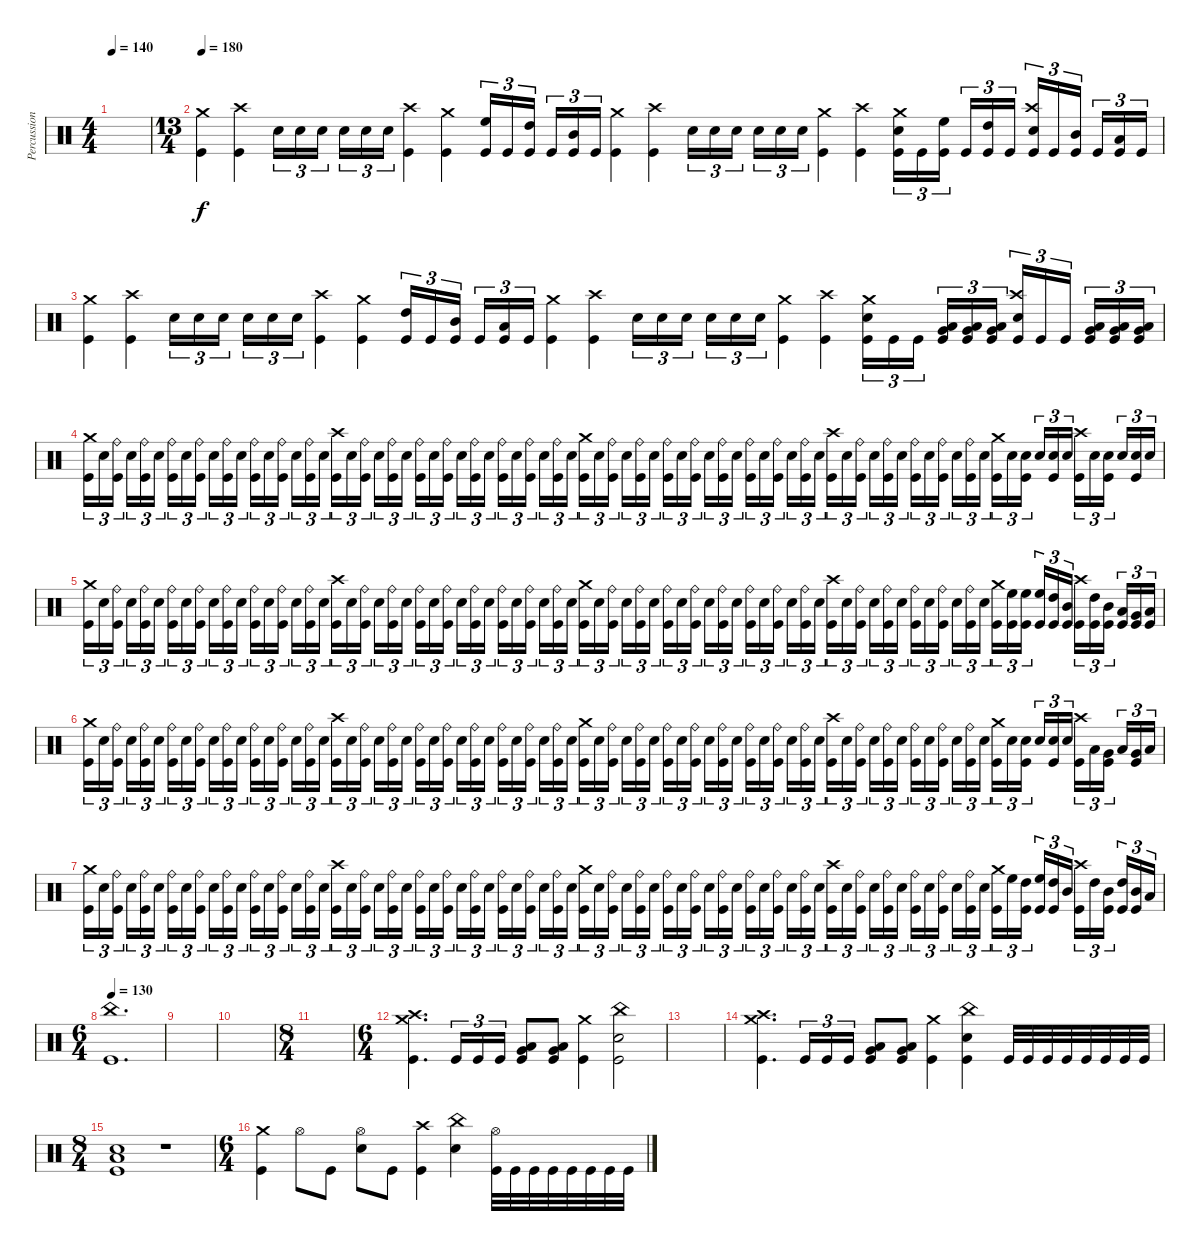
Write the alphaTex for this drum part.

\track ("Percussion" "Percussion") {instrument percussion}
\staff {score}
\articulation defaults
\ts (4 4)
\tempo 140
\tempo 180
\tempo 140
\clef neutral
\ks c
|
\ts (13 4)
\tempo 180
("Crash medium (hit)" "Kick (hit)").4 ("Crash high (hit)" "Kick (hit)").4 "Snare (hit) 2".16{tu (3 2)} "Snare (hit) 2".16{tu (3 2)} "Snare (hit) 2".16{tu (3 2) beam splitsecondary} "Snare (hit) 2".16{tu (3 2)} "Snare (hit) 2".16{tu (3 2)} "Snare (hit) 2".16{tu (3 2)} ("Crash high (hit)" "Kick (hit)").4 ("Crash medium (hit)" "Kick (hit)").4 ("High Floor Tom (hit)" "Kick (hit)").16{tu (3 2)} "Kick (hit)".16{tu (3 2)} ("High Tom (hit)" "Kick (hit)").16{tu (3 2) beam splitsecondary} "Kick (hit)".16{tu (3 2)} ("Mid Tom (hit)" "Kick (hit)").16{tu (3 2)} "Kick (hit)".16{tu (3 2)} ("Crash medium (hit)" "Kick (hit)").4 ("Crash high (hit)" "Kick (hit)").4 "Snare (hit) 2".16{tu (3 2)} "Snare (hit) 2".16{tu (3 2)} "Snare (hit) 2".16{tu (3 2) beam splitsecondary} "Snare (hit) 2".16{tu (3 2)} "Snare (hit) 2".16{tu (3 2)} "Snare (hit) 2".16{tu (3 2)} ("Crash medium (hit)" "Kick (hit)").4 ("Crash high (hit)" "Kick (hit)").4 ("Snare (hit) 2" "Crash medium (hit)" "Kick (hit)").16{tu (3 2)} "Kick (hit)".16{tu (3 2)} ("High Floor Tom (hit)" "Kick (hit)").16{tu (3 2) beam splitsecondary} "Kick (hit)".16{tu (3 2)} ("High Tom (hit)" "Kick (hit)").16{tu (3 2)} "Kick (hit)".16{tu (3 2)} ("Snare (hit) 2" "Crash high (hit)" "Kick (hit)").16{tu (3 2)} "Kick (hit)".16{tu (3 2)} ("Mid Tom (hit)" "Kick (hit)").16{tu (3 2) beam splitsecondary} "Kick (hit)".16{tu (3 2)} ("Low Tom (hit)" "Kick (hit)").16{tu (3 2)} "Kick (hit)".16{tu (3 2)} |
("Crash medium (hit)" "Kick (hit)").4 ("Crash high (hit)" "Kick (hit)").4 "Snare (hit) 2".16{tu (3 2)} "Snare (hit) 2".16{tu (3 2)} "Snare (hit) 2".16{tu (3 2) beam splitsecondary} "Snare (hit) 2".16{tu (3 2)} "Snare (hit) 2".16{tu (3 2)} "Snare (hit) 2".16{tu (3 2)} ("Crash high (hit)" "Kick (hit)").4 ("Crash medium (hit)" "Kick (hit)").4 ("High Tom (hit)" "Kick (hit)").16{tu (3 2)} "Kick (hit)".16{tu (3 2)} ("Mid Tom (hit)" "Kick (hit)").16{tu (3 2) beam splitsecondary} "Kick (hit)".16{tu (3 2)} ("Low Tom (hit)" "Kick (hit)").16{tu (3 2)} "Kick (hit)".16{tu (3 2)} ("Crash medium (hit)" "Kick (hit)").4 ("Crash high (hit)" "Kick (hit)").4 "Snare (hit) 2".16{tu (3 2)} "Snare (hit) 2".16{tu (3 2)} "Snare (hit) 2".16{tu (3 2) beam splitsecondary} "Snare (hit) 2".16{tu (3 2)} "Snare (hit) 2".16{tu (3 2)} "Snare (hit) 2".16{tu (3 2)} ("Crash medium (hit)" "Kick (hit)").4 ("Crash high (hit)" "Kick (hit)").4 ("Snare (hit) 2" "Crash medium (hit)" "Kick (hit)").16{tu (3 2)} "Kick (hit)".16{tu (3 2)} "Kick (hit)".16{tu (3 2) beam splitsecondary} ("Very Low Tom (hit)" "Low Tom (hit)" "Kick (hit)").16{tu (3 2)} ("Very Low Tom (hit)" "Low Tom (hit)" "Kick (hit)").16{tu (3 2)} ("Very Low Tom (hit)" "Low Tom (hit)" "Kick (hit)").16{tu (3 2)} ("Snare (hit) 2" "Crash high (hit)" "Kick (hit)").16{tu (3 2)} "Kick (hit)".16{tu (3 2)} "Kick (hit)".16{tu (3 2) beam splitsecondary} ("Low Floor Tom (hit)" "Very Low Tom (hit)" "Kick (hit)").16{tu (3 2)} ("Low Floor Tom (hit)" "Very Low Tom (hit)" "Kick (hit)").16{tu (3 2)} ("Low Floor Tom (hit)" "Very Low Tom (hit)" "Kick (hit)").16{tu (3 2)} |
("Crash medium (hit)" "Kick (hit)").16{tu (3 2)} "Snare (hit) 2".16{tu (3 2)} ("Ride (bell)" "Kick (hit)").16{tu (3 2) beam splitsecondary} "Snare (hit) 2".16{tu (3 2)} ("Ride (bell)" "Kick (hit)").16{tu (3 2)} "Snare (hit) 2".16{tu (3 2)} ("Ride (bell)" "Kick (hit)").16{tu (3 2)} "Snare (hit) 2".16{tu (3 2)} ("Ride (bell)" "Kick (hit)").16{tu (3 2) beam splitsecondary} "Snare (hit) 2".16{tu (3 2)} ("Ride (bell)" "Kick (hit)").16{tu (3 2)} "Snare (hit) 2".16{tu (3 2)} ("Ride (bell)" "Kick (hit)").16{tu (3 2)} "Snare (hit) 2".16{tu (3 2)} ("Ride (bell)" "Kick (hit)").16{tu (3 2) beam splitsecondary} "Snare (hit) 2".16{tu (3 2)} ("Ride (bell)" "Kick (hit)").16{tu (3 2)} "Snare (hit) 2".16{tu (3 2)} ("Crash high (hit)" "Kick (hit)").16{tu (3 2)} "Snare (hit) 2".16{tu (3 2)} ("Ride (bell)" "Kick (hit)").16{tu (3 2) beam splitsecondary} "Snare (hit) 2".16{tu (3 2)} ("Ride (bell)" "Kick (hit)").16{tu (3 2)} "Snare (hit) 2".16{tu (3 2)} ("Ride (bell)" "Kick (hit)").16{tu (3 2)} "Snare (hit) 2".16{tu (3 2)} ("Ride (bell)" "Kick (hit)").16{tu (3 2) beam splitsecondary} "Snare (hit) 2".16{tu (3 2)} ("Ride (bell)" "Kick (hit)").16{tu (3 2)} "Snare (hit) 2".16{tu (3 2)} ("Ride (bell)" "Kick (hit)").16{tu (3 2)} "Snare (hit) 2".16{tu (3 2)} ("Ride (bell)" "Kick (hit)").16{tu (3 2) beam splitsecondary} "Snare (hit) 2".16{tu (3 2)} ("Ride (bell)" "Kick (hit)").16{tu (3 2)} "Snare (hit) 2".16{tu (3 2)} ("Crash medium (hit)" "Kick (hit)").16{tu (3 2)} "Snare (hit) 2".16{tu (3 2)} ("Ride (bell)" "Kick (hit)").16{tu (3 2) beam splitsecondary} "Snare (hit) 2".16{tu (3 2)} ("Ride (bell)" "Kick (hit)").16{tu (3 2)} "Snare (hit) 2".16{tu (3 2)} ("Ride (bell)" "Kick (hit)").16{tu (3 2)} "Snare (hit) 2".16{tu (3 2)} ("Ride (bell)" "Kick (hit)").16{tu (3 2) beam splitsecondary} "Snare (hit) 2".16{tu (3 2)} ("Ride (bell)" "Kick (hit)").16{tu (3 2)} "Snare (hit) 2".16{tu (3 2)} ("Ride (bell)" "Kick (hit)").16{tu (3 2)} "Snare (hit) 2".16{tu (3 2)} ("Ride (bell)" "Kick (hit)").16{tu (3 2) beam splitsecondary} "Snare (hit) 2".16{tu (3 2)} ("Ride (bell)" "Kick (hit)").16{tu (3 2)} "Snare (hit) 2".16{tu (3 2)} ("Crash high (hit)" "Kick (hit)").16{tu (3 2)} "Snare (hit) 2".16{tu (3 2)} ("Ride (bell)" "Kick (hit)").16{tu (3 2) beam splitsecondary} "Snare (hit) 2".16{tu (3 2)} ("Ride (bell)" "Kick (hit)").16{tu (3 2)} "Snare (hit) 2".16{tu (3 2)} ("Ride (bell)" "Kick (hit)").16{tu (3 2)} "Snare (hit) 2".16{tu (3 2)} ("Ride (bell)" "Kick (hit)").16{tu (3 2) beam splitsecondary} "Snare (hit) 2".16{tu (3 2)} ("Ride (bell)" "Kick (hit)").16{tu (3 2)} "Snare (hit) 2".16{tu (3 2)} ("Crash medium (hit)" "Kick (hit)").16{tu (3 2)} "Snare (hit) 2".16{tu (3 2)} ("Snare (hit) 2" "Kick (hit)").16{tu (3 2) beam splitsecondary} "Snare (hit) 2".16{tu (3 2)} ("Snare (hit) 2" "Kick (hit)").16{tu (3 2)} "Snare (hit) 2".16{tu (3 2)} ("Crash high (hit)" "Kick (hit)").16{tu (3 2)} "Snare (hit) 2".16{tu (3 2)} ("Snare (hit) 2" "Kick (hit)").16{tu (3 2) beam splitsecondary} "Snare (hit) 2".16{tu (3 2)} ("Snare (hit) 2" "Kick (hit)").16{tu (3 2)} "Snare (hit) 2".16{tu (3 2)} |
("Crash medium (hit)" "Kick (hit)").16{tu (3 2)} "Snare (hit) 2".16{tu (3 2)} ("Ride (bell)" "Kick (hit)").16{tu (3 2) beam splitsecondary} "Snare (hit) 2".16{tu (3 2)} ("Ride (bell)" "Kick (hit)").16{tu (3 2)} "Snare (hit) 2".16{tu (3 2)} ("Ride (bell)" "Kick (hit)").16{tu (3 2)} "Snare (hit) 2".16{tu (3 2)} ("Ride (bell)" "Kick (hit)").16{tu (3 2) beam splitsecondary} "Snare (hit) 2".16{tu (3 2)} ("Ride (bell)" "Kick (hit)").16{tu (3 2)} "Snare (hit) 2".16{tu (3 2)} ("Ride (bell)" "Kick (hit)").16{tu (3 2)} "Snare (hit) 2".16{tu (3 2)} ("Ride (bell)" "Kick (hit)").16{tu (3 2) beam splitsecondary} "Snare (hit) 2".16{tu (3 2)} ("Ride (bell)" "Kick (hit)").16{tu (3 2)} "Snare (hit) 2".16{tu (3 2)} ("Crash high (hit)" "Kick (hit)").16{tu (3 2)} "Snare (hit) 2".16{tu (3 2)} ("Ride (bell)" "Kick (hit)").16{tu (3 2) beam splitsecondary} "Snare (hit) 2".16{tu (3 2)} ("Ride (bell)" "Kick (hit)").16{tu (3 2)} "Snare (hit) 2".16{tu (3 2)} ("Ride (bell)" "Kick (hit)").16{tu (3 2)} "Snare (hit) 2".16{tu (3 2)} ("Ride (bell)" "Kick (hit)").16{tu (3 2) beam splitsecondary} "Snare (hit) 2".16{tu (3 2)} ("Ride (bell)" "Kick (hit)").16{tu (3 2)} "Snare (hit) 2".16{tu (3 2)} ("Ride (bell)" "Kick (hit)").16{tu (3 2)} "Snare (hit) 2".16{tu (3 2)} ("Ride (bell)" "Kick (hit)").16{tu (3 2) beam splitsecondary} "Snare (hit) 2".16{tu (3 2)} ("Ride (bell)" "Kick (hit)").16{tu (3 2)} "Snare (hit) 2".16{tu (3 2)} ("Crash medium (hit)" "Kick (hit)").16{tu (3 2)} "Snare (hit) 2".16{tu (3 2)} ("Ride (bell)" "Kick (hit)").16{tu (3 2) beam splitsecondary} "Snare (hit) 2".16{tu (3 2)} ("Ride (bell)" "Kick (hit)").16{tu (3 2)} "Snare (hit) 2".16{tu (3 2)} ("Ride (bell)" "Kick (hit)").16{tu (3 2)} "Snare (hit) 2".16{tu (3 2)} ("Ride (bell)" "Kick (hit)").16{tu (3 2) beam splitsecondary} "Snare (hit) 2".16{tu (3 2)} ("Ride (bell)" "Kick (hit)").16{tu (3 2)} "Snare (hit) 2".16{tu (3 2)} ("Ride (bell)" "Kick (hit)").16{tu (3 2)} "Snare (hit) 2".16{tu (3 2)} ("Ride (bell)" "Kick (hit)").16{tu (3 2) beam splitsecondary} "Snare (hit) 2".16{tu (3 2)} ("Ride (bell)" "Kick (hit)").16{tu (3 2)} "Snare (hit) 2".16{tu (3 2)} ("Crash high (hit)" "Kick (hit)").16{tu (3 2)} "Snare (hit) 2".16{tu (3 2)} ("Ride (bell)" "Kick (hit)").16{tu (3 2) beam splitsecondary} "Snare (hit) 2".16{tu (3 2)} ("Ride (bell)" "Kick (hit)").16{tu (3 2)} "Snare (hit) 2".16{tu (3 2)} ("Ride (bell)" "Kick (hit)").16{tu (3 2)} "Snare (hit) 2".16{tu (3 2)} ("Ride (bell)" "Kick (hit)").16{tu (3 2) beam splitsecondary} "Snare (hit) 2".16{tu (3 2)} ("Ride (bell)" "Kick (hit)").16{tu (3 2)} "Snare (hit) 2".16{tu (3 2)} ("Crash medium (hit)" "Kick (hit)").16{tu (3 2)} ("High Floor Tom (hit)" "Kick (hit)").16{tu (3 2)} ("High Floor Tom (hit)" "Kick (hit)").16{tu (3 2) beam splitsecondary} ("High Floor Tom (hit)" "Kick (hit)").16{tu (3 2)} ("High Tom (hit)" "Kick (hit)").16{tu (3 2)} ("Mid Tom (hit)" "Kick (hit)").16{tu (3 2)} ("Crash high (hit)" "Kick (hit)").16{tu (3 2)} ("High Tom (hit)" "Kick (hit)").16{tu (3 2)} ("Mid Tom (hit)" "Kick (hit)").16{tu (3 2) beam splitsecondary} ("Low Tom (hit)" "Kick (hit)").16{tu (3 2)} ("Very Low Tom (hit)" "Kick (hit)").16{tu (3 2)} ("Low Floor Tom (hit)" "Kick (hit)").16{tu (3 2)} |
("Crash medium (hit)" "Kick (hit)").16{tu (3 2)} "Snare (hit) 2".16{tu (3 2)} ("Ride (bell)" "Kick (hit)").16{tu (3 2) beam splitsecondary} "Snare (hit) 2".16{tu (3 2)} ("Ride (bell)" "Kick (hit)").16{tu (3 2)} "Snare (hit) 2".16{tu (3 2)} ("Ride (bell)" "Kick (hit)").16{tu (3 2)} "Snare (hit) 2".16{tu (3 2)} ("Ride (bell)" "Kick (hit)").16{tu (3 2) beam splitsecondary} "Snare (hit) 2".16{tu (3 2)} ("Ride (bell)" "Kick (hit)").16{tu (3 2)} "Snare (hit) 2".16{tu (3 2)} ("Ride (bell)" "Kick (hit)").16{tu (3 2)} "Snare (hit) 2".16{tu (3 2)} ("Ride (bell)" "Kick (hit)").16{tu (3 2) beam splitsecondary} "Snare (hit) 2".16{tu (3 2)} ("Ride (bell)" "Kick (hit)").16{tu (3 2)} "Snare (hit) 2".16{tu (3 2)} ("Crash high (hit)" "Kick (hit)").16{tu (3 2)} "Snare (hit) 2".16{tu (3 2)} ("Ride (bell)" "Kick (hit)").16{tu (3 2) beam splitsecondary} "Snare (hit) 2".16{tu (3 2)} ("Ride (bell)" "Kick (hit)").16{tu (3 2)} "Snare (hit) 2".16{tu (3 2)} ("Ride (bell)" "Kick (hit)").16{tu (3 2)} "Snare (hit) 2".16{tu (3 2)} ("Ride (bell)" "Kick (hit)").16{tu (3 2) beam splitsecondary} "Snare (hit) 2".16{tu (3 2)} ("Ride (bell)" "Kick (hit)").16{tu (3 2)} "Snare (hit) 2".16{tu (3 2)} ("Ride (bell)" "Kick (hit)").16{tu (3 2)} "Snare (hit) 2".16{tu (3 2)} ("Ride (bell)" "Kick (hit)").16{tu (3 2) beam splitsecondary} "Snare (hit) 2".16{tu (3 2)} ("Ride (bell)" "Kick (hit)").16{tu (3 2)} "Snare (hit) 2".16{tu (3 2)} ("Crash medium (hit)" "Kick (hit)").16{tu (3 2)} "Snare (hit) 2".16{tu (3 2)} ("Ride (bell)" "Kick (hit)").16{tu (3 2) beam splitsecondary} "Snare (hit) 2".16{tu (3 2)} ("Ride (bell)" "Kick (hit)").16{tu (3 2)} "Snare (hit) 2".16{tu (3 2)} ("Ride (bell)" "Kick (hit)").16{tu (3 2)} "Snare (hit) 2".16{tu (3 2)} ("Ride (bell)" "Kick (hit)").16{tu (3 2) beam splitsecondary} "Snare (hit) 2".16{tu (3 2)} ("Ride (bell)" "Kick (hit)").16{tu (3 2)} "Snare (hit) 2".16{tu (3 2)} ("Ride (bell)" "Kick (hit)").16{tu (3 2)} "Snare (hit) 2".16{tu (3 2)} ("Ride (bell)" "Kick (hit)").16{tu (3 2) beam splitsecondary} "Snare (hit) 2".16{tu (3 2)} ("Ride (bell)" "Kick (hit)").16{tu (3 2)} "Snare (hit) 2".16{tu (3 2)} ("Crash high (hit)" "Kick (hit)").16{tu (3 2)} "Snare (hit) 2".16{tu (3 2)} ("Ride (bell)" "Kick (hit)").16{tu (3 2) beam splitsecondary} "Snare (hit) 2".16{tu (3 2)} ("Ride (bell)" "Kick (hit)").16{tu (3 2)} "Snare (hit) 2".16{tu (3 2)} ("Ride (bell)" "Kick (hit)").16{tu (3 2)} "Snare (hit) 2".16{tu (3 2)} ("Ride (bell)" "Kick (hit)").16{tu (3 2) beam splitsecondary} "Snare (hit) 2".16{tu (3 2)} ("Ride (bell)" "Kick (hit)").16{tu (3 2)} "Snare (hit) 2".16{tu (3 2)} ("Crash medium (hit)" "Kick (hit)").16{tu (3 2)} "Snare (hit) 2".16{tu (3 2)} ("Snare (hit) 2" "Kick (hit)").16{tu (3 2) beam splitsecondary} "Snare (hit) 2".16{tu (3 2)} ("Snare (hit) 2" "Kick (hit)").16{tu (3 2)} "Snare (hit) 2".16{tu (3 2)} ("Crash high (hit)" "Kick (hit)").16{tu (3 2)} "Low Tom (hit)".16{tu (3 2)} ("Very Low Tom (hit)" "Kick (hit)").16{tu (3 2) beam splitsecondary} "Low Tom (hit)".16{tu (3 2)} ("Very Low Tom (hit)" "Kick (hit)").16{tu (3 2)} "Low Floor Tom (hit)".16{tu (3 2)} |
("Crash medium (hit)" "Kick (hit)").16{tu (3 2)} "Snare (hit) 2".16{tu (3 2)} ("Ride (bell)" "Kick (hit)").16{tu (3 2) beam splitsecondary} "Snare (hit) 2".16{tu (3 2)} ("Ride (bell)" "Kick (hit)").16{tu (3 2)} "Snare (hit) 2".16{tu (3 2)} ("Ride (bell)" "Kick (hit)").16{tu (3 2)} "Snare (hit) 2".16{tu (3 2)} ("Ride (bell)" "Kick (hit)").16{tu (3 2) beam splitsecondary} "Snare (hit) 2".16{tu (3 2)} ("Ride (bell)" "Kick (hit)").16{tu (3 2)} "Snare (hit) 2".16{tu (3 2)} ("Ride (bell)" "Kick (hit)").16{tu (3 2)} "Snare (hit) 2".16{tu (3 2)} ("Ride (bell)" "Kick (hit)").16{tu (3 2) beam splitsecondary} "Snare (hit) 2".16{tu (3 2)} ("Ride (bell)" "Kick (hit)").16{tu (3 2)} "Snare (hit) 2".16{tu (3 2)} ("Crash high (hit)" "Kick (hit)").16{tu (3 2)} "Snare (hit) 2".16{tu (3 2)} ("Ride (bell)" "Kick (hit)").16{tu (3 2) beam splitsecondary} "Snare (hit) 2".16{tu (3 2)} ("Ride (bell)" "Kick (hit)").16{tu (3 2)} "Snare (hit) 2".16{tu (3 2)} ("Ride (bell)" "Kick (hit)").16{tu (3 2)} "Snare (hit) 2".16{tu (3 2)} ("Ride (bell)" "Kick (hit)").16{tu (3 2) beam splitsecondary} "Snare (hit) 2".16{tu (3 2)} ("Ride (bell)" "Kick (hit)").16{tu (3 2)} "Snare (hit) 2".16{tu (3 2)} ("Ride (bell)" "Kick (hit)").16{tu (3 2)} "Snare (hit) 2".16{tu (3 2)} ("Ride (bell)" "Kick (hit)").16{tu (3 2) beam splitsecondary} "Snare (hit) 2".16{tu (3 2)} ("Ride (bell)" "Kick (hit)").16{tu (3 2)} "Snare (hit) 2".16{tu (3 2)} ("Crash medium (hit)" "Kick (hit)").16{tu (3 2)} "Snare (hit) 2".16{tu (3 2)} ("Ride (bell)" "Kick (hit)").16{tu (3 2) beam splitsecondary} "Snare (hit) 2".16{tu (3 2)} ("Ride (bell)" "Kick (hit)").16{tu (3 2)} "Snare (hit) 2".16{tu (3 2)} ("Ride (bell)" "Kick (hit)").16{tu (3 2)} "Snare (hit) 2".16{tu (3 2)} ("Ride (bell)" "Kick (hit)").16{tu (3 2) beam splitsecondary} "Snare (hit) 2".16{tu (3 2)} ("Ride (bell)" "Kick (hit)").16{tu (3 2)} "Snare (hit) 2".16{tu (3 2)} ("Ride (bell)" "Kick (hit)").16{tu (3 2)} "Snare (hit) 2".16{tu (3 2)} ("Ride (bell)" "Kick (hit)").16{tu (3 2) beam splitsecondary} "Snare (hit) 2".16{tu (3 2)} ("Ride (bell)" "Kick (hit)").16{tu (3 2)} "Snare (hit) 2".16{tu (3 2)} ("Crash high (hit)" "Kick (hit)").16{tu (3 2)} "Snare (hit) 2".16{tu (3 2)} ("Ride (bell)" "Kick (hit)").16{tu (3 2) beam splitsecondary} "Snare (hit) 2".16{tu (3 2)} ("Ride (bell)" "Kick (hit)").16{tu (3 2)} "Snare (hit) 2".16{tu (3 2)} ("Ride (bell)" "Kick (hit)").16{tu (3 2)} "Snare (hit) 2".16{tu (3 2)} ("Ride (bell)" "Kick (hit)").16{tu (3 2) beam splitsecondary} "Snare (hit) 2".16{tu (3 2)} ("Ride (bell)" "Kick (hit)").16{tu (3 2)} "Snare (hit) 2".16{tu (3 2)} ("Crash medium (hit)" "Kick (hit)").16{tu (3 2)} "High Floor Tom (hit)".16{tu (3 2)} ("High Tom (hit)" "Kick (hit)").16{tu (3 2) beam splitsecondary} ("High Floor Tom (hit)" "Kick (hit)").16{tu (3 2)} ("High Tom (hit)" "Kick (hit)").16{tu (3 2)} "Mid Tom (hit)".16{tu (3 2)} ("Crash high (hit)" "Kick (hit)").16{tu (3 2)} "High Tom (hit)".16{tu (3 2)} ("Mid Tom (hit)" "Kick (hit)").16{tu (3 2) beam splitsecondary} ("High Tom (hit)" "Kick (hit)").16{tu (3 2)} ("Mid Tom (hit)" "Kick (hit)").16{tu (3 2)} "Low Tom (hit)".16{tu (3 2)} |
\ts (6 4)
\tempo 130
("China (hit)" "Kick (hit)").1{d} |
|
|
\ts (8 4)
|
\ts (6 4)
("Crash high (hit)" "Crash medium (hit)" "Kick (hit)").4{d} "Kick (hit)".16{tu (3 2)} "Kick (hit)".16{tu (3 2)} "Kick (hit)".16{tu (3 2)} ("Very Low Tom (hit)" "Low Floor Tom (hit)" "Kick (hit)").8 ("Very Low Tom (hit)" "Low Floor Tom (hit)" "Kick (hit)").8 ("Crash medium (hit)" "Kick (hit)").4 ("China (hit)" "Snare (hit) 2" "Kick (hit)").2 |
|
("Crash high (hit)" "Crash medium (hit)" "Kick (hit)").4{d} "Kick (hit)".16{tu (3 2)} "Kick (hit)".16{tu (3 2)} "Kick (hit)".16{tu (3 2)} ("Very Low Tom (hit)" "Low Floor Tom (hit)" "Kick (hit)").8 ("Very Low Tom (hit)" "Low Floor Tom (hit)" "Kick (hit)").8 ("Crash medium (hit)" "Kick (hit)").4 ("China (hit)" "Snare (hit) 2" "Kick (hit)").4 "Kick (hit)".32 "Kick (hit)".32 "Kick (hit)".32 "Kick (hit)".32 "Kick (hit)".32 "Kick (hit)".32 "Kick (hit)".32 "Kick (hit)".32 |
\ts (8 4)
("Low Floor Tom (hit)" "Snare (hit) 2" "Kick (hit)").1 r.1 |
\ts (6 4)
("Crash medium (hit)" "Kick (hit)").4 "Hi-Hat (open)".8 "Kick (hit)".8 ("Hi-Hat (open)" "Snare (hit) 2").8 "Kick (hit)".8 ("Crash high (hit)" "Kick (hit)").4 ("China (hit)" "Snare (hit) 2").4 ("Hi-Hat (open)" "Kick (hit)").32 "Kick (hit)".32 "Kick (hit)".32 "Kick (hit)".32 "Kick (hit)".32 "Kick (hit)".32 "Kick (hit)".32 "Kick (hit)".32
